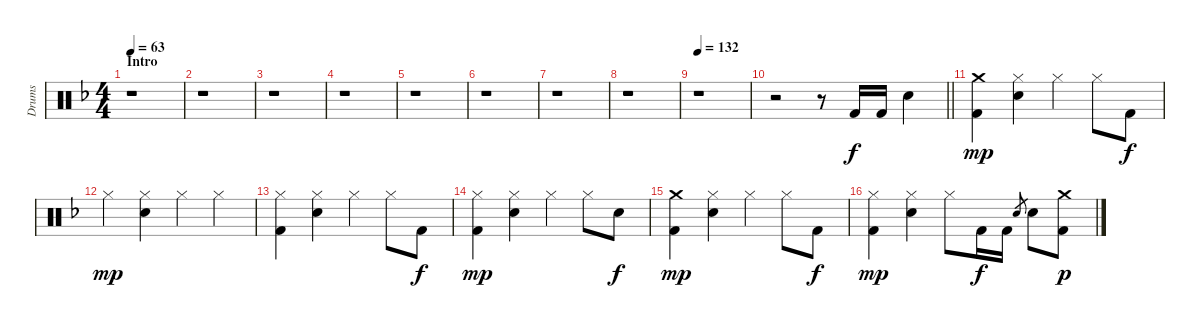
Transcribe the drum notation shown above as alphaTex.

\track ("Drums" "Drums") {instrument percussion}
\staff {score}
\articulation defaults
\ts (4 4)
\section ("" "Intro")
\tempo 63
\clef neutral
\ks f
r.1{dy f} |
r.1 |
r.1 |
r.1 |
r.1 |
r.1 |
r.1 |
r.1 |
\tempo 132
r.1 |
\barLineRight lightlight
r.2 r.8 "Kick (hit) 2".16 "Kick (hit) 2".16 "Electric Snare (hit)".4 |
("Crash medium (hit)" "Kick (hit) 2").4{dy mp} ("Hi-Hat (closed)" "Electric Snare (hit)").4 "Hi-Hat (closed)".4 "Hi-Hat (closed)".8 "Kick (hit) 2".8{dy f} |
"Hi-Hat (closed)".4{dy mp} ("Hi-Hat (closed)" "Electric Snare (hit)").4 "Hi-Hat (closed)".4 "Hi-Hat (closed)".4 |
("Hi-Hat (closed)" "Kick (hit) 2").4 ("Hi-Hat (closed)" "Electric Snare (hit)").4 "Hi-Hat (closed)".4 "Hi-Hat (closed)".8 "Kick (hit) 2".8{dy f} |
("Hi-Hat (closed)" "Kick (hit) 2").4{dy mp} ("Hi-Hat (closed)" "Electric Snare (hit)").4 "Hi-Hat (closed)".4 "Hi-Hat (closed)".8 "Electric Snare (hit)".8{dy f} |
("Crash medium (hit)" "Kick (hit) 2").4{dy mp} ("Hi-Hat (closed)" "Electric Snare (hit)").4 "Hi-Hat (closed)".4 "Hi-Hat (closed)".8 "Kick (hit) 2".8{dy f} |
("Hi-Hat (closed)" "Kick (hit) 2").4{dy mp} ("Hi-Hat (closed)" "Electric Snare (hit)").4 "Hi-Hat (closed)".8 "Kick (hit) 2".16{dy f} "Kick (hit) 2".16 "Electric Snare (hit)".8{gr} "Electric Snare (hit)".8 ("Kick (hit) 2" "Crash medium (hit)").8{dy p}
